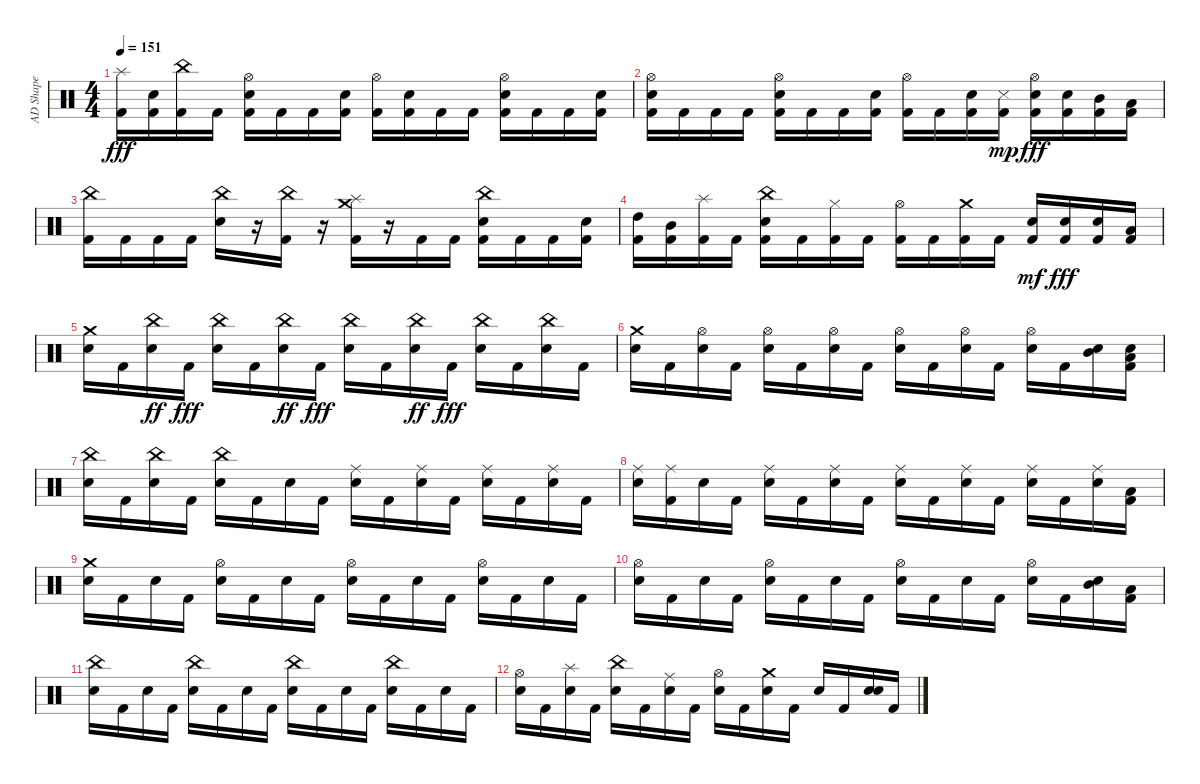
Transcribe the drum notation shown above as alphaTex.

\track ("AD Shape" "AD Shape") {instrument percussion}
\staff {score}
\articulation defaults
\ts (4 4)
\tempo 151
\clef neutral
\ks c
("Kick (hit) 2" "Splash (hit)").16{dy fff} ("Kick (hit) 2" "Snare (hit) 2").16 ("Kick (hit) 2" "China (hit)").16 "Kick (hit) 2".16 ("Kick (hit) 2" "Snare (hit) 2" "Hi-Hat (open)").16 "Kick (hit) 2".16 "Kick (hit) 2".16 ("Kick (hit) 2" "Snare (hit) 2").16 ("Kick (hit) 2" "Hi-Hat (open)").16 ("Kick (hit) 2" "Snare (hit) 2").16 "Kick (hit) 2".16 "Kick (hit) 2".16 ("Kick (hit) 2" "Snare (hit) 2" "Hi-Hat (open)").16 "Kick (hit) 2".16 "Kick (hit) 2".16 ("Kick (hit) 2" "Snare (hit) 2").16 |
("Kick (hit) 2" "Snare (hit) 2" "Hi-Hat (open)").16 "Kick (hit) 2".16 "Kick (hit) 2".16 "Kick (hit) 2".16 ("Kick (hit) 2" "Snare (hit) 2" "Hi-Hat (open)").16 "Kick (hit) 2".16 "Kick (hit) 2".16 ("Kick (hit) 2" "Snare (hit) 2").16 ("Kick (hit) 2" "Hi-Hat (open)").16 "Kick (hit) 2".16 ("Kick (hit) 2" "Snare (hit) 2").16 ("Kick (hit) 2" "Snare (side stick) 3").16{dy mp} ("Kick (hit) 2" "Snare (hit) 2" "Hi-Hat (open)").16{dy fff} ("Kick (hit) 2" "Snare (hit) 2").16 ("Kick (hit) 2" "Mid Tom (hit)").16 ("Kick (hit) 2" "Low Tom (hit)").16 |
("Kick (hit) 2" "China (hit)").16 "Kick (hit) 2".16 "Kick (hit) 2".16 "Kick (hit) 2".16 ("Snare (hit) 2" "China (hit)").16 r.16 ("Kick (hit) 2" "China (hit)").16 r.16 ("Kick (hit) 2" "Splash (hit)" "Crash medium (hit)").16 r.16 "Kick (hit) 2".16 "Kick (hit) 2".16 ("Kick (hit) 2" "Snare (hit) 2" "China (hit)").16 "Kick (hit) 2".16 "Kick (hit) 2".16 ("Kick (hit) 2" "Snare (hit) 2").16 |
("Kick (hit) 2" "High Tom (hit)").16 ("Kick (hit) 2" "Mid Tom (hit)").16 ("Kick (hit) 2" "Splash (hit)").16 "Kick (hit) 2".16 ("Kick (hit) 2" "Snare (hit) 2" "China (hit)").16 "Kick (hit) 2".16 ("Kick (hit) 2" "Hi-Hat (closed)").16 "Kick (hit) 2".16 ("Kick (hit) 2" "Hi-Hat (open)").16 "Kick (hit) 2".16 ("Kick (hit) 2" "Crash medium (hit)").16 "Kick (hit) 2".16 ("Kick (hit) 2" "Snare (hit) 2").16{dy mf} ("Kick (hit) 2" "Snare (hit) 2").16{dy fff} ("Kick (hit) 2" "Snare (hit) 2").16 ("Kick (hit) 2" "Low Tom (hit)").16 |
("Snare (hit) 2" "Crash medium (hit)").16 "Kick (hit) 2".16 ("Snare (hit) 2" "China (hit)").16{dy ff} "Kick (hit) 2".16{dy fff} ("Snare (hit) 2" "China (hit)").16 "Kick (hit) 2".16 ("Snare (hit) 2" "China (hit)").16{dy ff} "Kick (hit) 2".16{dy fff} ("Snare (hit) 2" "China (hit)").16 "Kick (hit) 2".16 ("Snare (hit) 2" "China (hit)").16{dy ff} "Kick (hit) 2".16{dy fff} ("Snare (hit) 2" "China (hit)").16 "Kick (hit) 2".16 ("Snare (hit) 2" "China (hit)").16 "Kick (hit) 2".16 |
("Snare (hit) 2" "Crash medium (hit)").16 "Kick (hit) 2".16 ("Snare (hit) 2" "Hi-Hat (open)").16 "Kick (hit) 2".16 ("Snare (hit) 2" "Hi-Hat (open)").16 "Kick (hit) 2".16 ("Snare (hit) 2" "Hi-Hat (open)").16 "Kick (hit) 2".16 ("Snare (hit) 2" "Hi-Hat (open)").16 "Kick (hit) 2".16 ("Snare (hit) 2" "Hi-Hat (open)").16 "Kick (hit) 2".16 ("Snare (hit) 2" "Hi-Hat (open)").16 "Kick (hit) 2".16 ("Snare (hit) 2" "Mid Tom (hit)").16 ("Kick (hit) 2" "Snare (hit) 2" "Low Tom (hit)").16 |
("Snare (hit) 2" "China (hit)").16 "Kick (hit) 2".16 ("Snare (hit) 2" "China (hit)").16 "Kick (hit) 2".16 ("Snare (hit) 2" "China (hit)").16 "Kick (hit) 2".16 "Snare (hit) 2".16 "Kick (hit) 2".16 ("Snare (hit) 2" "Ride (middle)").16 "Kick (hit) 2".16 ("Snare (hit) 2" "Ride (middle)").16 "Kick (hit) 2".16 ("Snare (hit) 2" "Ride (middle)").16 "Kick (hit) 2".16 ("Snare (hit) 2" "Ride (middle)").16 "Kick (hit) 2".16 |
("Snare (hit) 2" "Ride (middle)").16 ("Kick (hit) 2" "Ride (middle)").16 "Snare (hit) 2".16 "Kick (hit) 2".16 ("Snare (hit) 2" "Ride (middle)").16 "Kick (hit) 2".16 ("Snare (hit) 2" "Ride (middle)").16 "Kick (hit) 2".16 ("Snare (hit) 2" "Ride (middle)").16 "Kick (hit) 2".16 ("Snare (hit) 2" "Ride (middle)").16 "Kick (hit) 2".16 ("Snare (hit) 2" "Ride (middle)").16 "Kick (hit) 2".16 ("Snare (hit) 2" "Ride (middle)").16 ("Kick (hit) 2" "Low Tom (hit)").16 |
("Snare (hit) 2" "Crash medium (hit)").16 "Kick (hit) 2".16 "Snare (hit) 2".16 "Kick (hit) 2".16 ("Snare (hit) 2" "Hi-Hat (open)").16 "Kick (hit) 2".16 "Snare (hit) 2".16 "Kick (hit) 2".16 ("Snare (hit) 2" "Hi-Hat (open)").16 "Kick (hit) 2".16 "Snare (hit) 2".16 "Kick (hit) 2".16 ("Snare (hit) 2" "Hi-Hat (open)").16 "Kick (hit) 2".16 "Snare (hit) 2".16 "Kick (hit) 2".16 |
("Snare (hit) 2" "Hi-Hat (open)").16 "Kick (hit) 2".16 "Snare (hit) 2".16 "Kick (hit) 2".16 ("Snare (hit) 2" "Hi-Hat (open)").16 "Kick (hit) 2".16 "Snare (hit) 2".16 "Kick (hit) 2".16 ("Snare (hit) 2" "Hi-Hat (open)").16 "Kick (hit) 2".16 "Snare (hit) 2".16 "Kick (hit) 2".16 ("Snare (hit) 2" "Hi-Hat (open)").16 "Kick (hit) 2".16 ("Snare (hit) 2" "Mid Tom (hit)").16 ("Kick (hit) 2" "Low Tom (hit)").16 |
("Snare (hit) 2" "China (hit)").16 "Kick (hit) 2".16 "Snare (hit) 2".16 "Kick (hit) 2".16 ("Snare (hit) 2" "China (hit)").16 "Kick (hit) 2".16 "Snare (hit) 2".16 "Kick (hit) 2".16 ("Snare (hit) 2" "China (hit)").16 "Kick (hit) 2".16 "Snare (hit) 2".16 "Kick (hit) 2".16 ("Snare (hit) 2" "China (hit)").16 "Kick (hit) 2".16 "Snare (hit) 2".16 "Kick (hit) 2".16 |
("Snare (hit) 2" "Hi-Hat (open)").16 "Kick (hit) 2".16 ("Snare (hit) 2" "Splash (hit)").16 "Kick (hit) 2".16 ("Snare (hit) 2" "China (hit)").16 "Kick (hit) 2".16 ("Snare (hit) 2" "Ride (middle)").16 "Kick (hit) 2".16 ("Snare (hit) 2" "Hi-Hat (open)").16 "Kick (hit) 2".16 ("Snare (hit) 2" "Crash medium (hit)").16 "Kick (hit) 2".16 "Snare (hit) 2".16 "Kick (hit) 2".16 ("Snare (hit) 2" "Snare (hit) 2").16 "Kick (hit) 2".16
